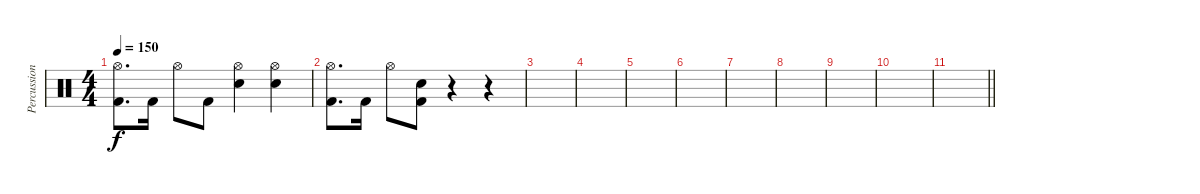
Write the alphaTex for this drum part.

\track ("Percussion" "Percussion") {instrument percussion}
\staff {score}
\articulation defaults
\ts (4 4)
\tempo 150
\clef neutral
\ks c
("Hi-Hat (open)" "Kick (hit) 2").8{d dy f} "Kick (hit) 2".16 "Hi-Hat (open)".8 "Kick (hit) 2".8 ("Hi-Hat (open)" "Electric Snare (hit)").4 ("Hi-Hat (open)" "Electric Snare (hit)").4 |
("Hi-Hat (open)" "Kick (hit) 2").8{d} "Kick (hit) 2".16 "Hi-Hat (open)".8 ("Electric Snare (hit)" "Kick (hit) 2").8 r.4 r.4 |
|
|
|
|
|
|
|
|
\barLineRight lightlight
